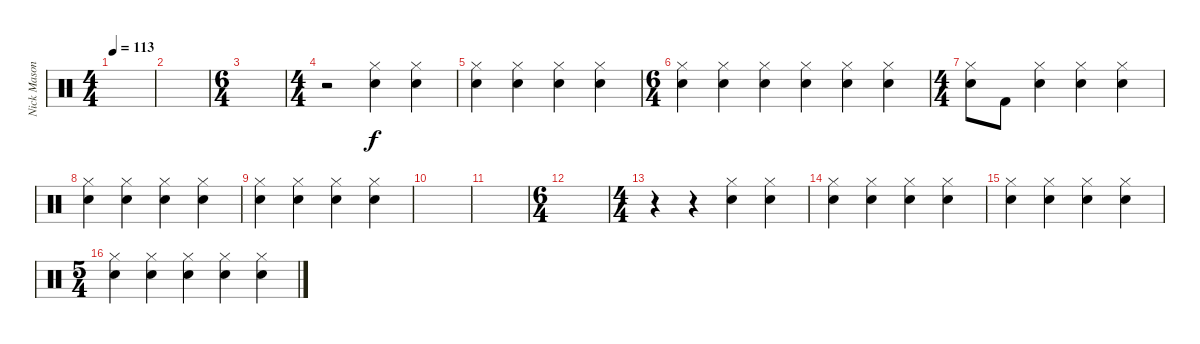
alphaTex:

\track ("Nick Mason- Drums" "Nick Mason") {instrument percussion}
\staff {score}
\articulation defaults
\ts (4 4)
\tempo 113
\clef neutral
\ks c
|
|
\ts (6 4)
|
\ts (4 4)
r.2 ("Hi-Hat (closed)" "Snare (hit) 2").4 ("Hi-Hat (closed)" "Snare (hit) 2").4 |
("Hi-Hat (closed)" "Snare (hit) 2").4 ("Hi-Hat (closed)" "Snare (hit) 2").4 ("Hi-Hat (closed)" "Snare (hit) 2").4 ("Hi-Hat (closed)" "Snare (hit) 2").4 |
\ts (6 4)
("Hi-Hat (closed)" "Snare (hit) 2").4 ("Hi-Hat (closed)" "Snare (hit) 2").4 ("Hi-Hat (closed)" "Snare (hit) 2").4 ("Hi-Hat (closed)" "Snare (hit) 2").4 ("Hi-Hat (closed)" "Snare (hit) 2").4 ("Hi-Hat (closed)" "Snare (hit) 2").4 |
\ts (4 4)
("Hi-Hat (closed)" "Snare (hit) 2").8 "Kick (hit) 2".8 ("Hi-Hat (closed)" "Snare (hit) 2").4 ("Hi-Hat (closed)" "Snare (hit) 2").4 ("Hi-Hat (closed)" "Snare (hit) 2").4 |
("Hi-Hat (closed)" "Snare (hit) 2").4 ("Hi-Hat (closed)" "Snare (hit) 2").4 ("Hi-Hat (closed)" "Snare (hit) 2").4 ("Hi-Hat (closed)" "Snare (hit) 2").4 |
("Hi-Hat (closed)" "Snare (hit) 2").4 ("Hi-Hat (closed)" "Snare (hit) 2").4 ("Hi-Hat (closed)" "Snare (hit) 2").4 ("Hi-Hat (closed)" "Snare (hit) 2").4 |
|
|
\ts (6 4)
|
\ts (4 4)
r.4 r.4 ("Hi-Hat (closed)" "Snare (hit) 2").4 ("Hi-Hat (closed)" "Snare (hit) 2").4 |
("Hi-Hat (closed)" "Snare (hit) 2").4 ("Hi-Hat (closed)" "Snare (hit) 2").4 ("Hi-Hat (closed)" "Snare (hit) 2").4 ("Hi-Hat (closed)" "Snare (hit) 2").4 |
("Hi-Hat (closed)" "Snare (hit) 2").4 ("Hi-Hat (closed)" "Snare (hit) 2").4 ("Hi-Hat (closed)" "Snare (hit) 2").4 ("Hi-Hat (closed)" "Snare (hit) 2").4 |
\ts (5 4)
("Hi-Hat (closed)" "Snare (hit) 2").4 ("Hi-Hat (closed)" "Snare (hit) 2").4 ("Hi-Hat (closed)" "Snare (hit) 2").4 ("Hi-Hat (closed)" "Snare (hit) 2").4 ("Hi-Hat (closed)" "Snare (hit) 2").4
